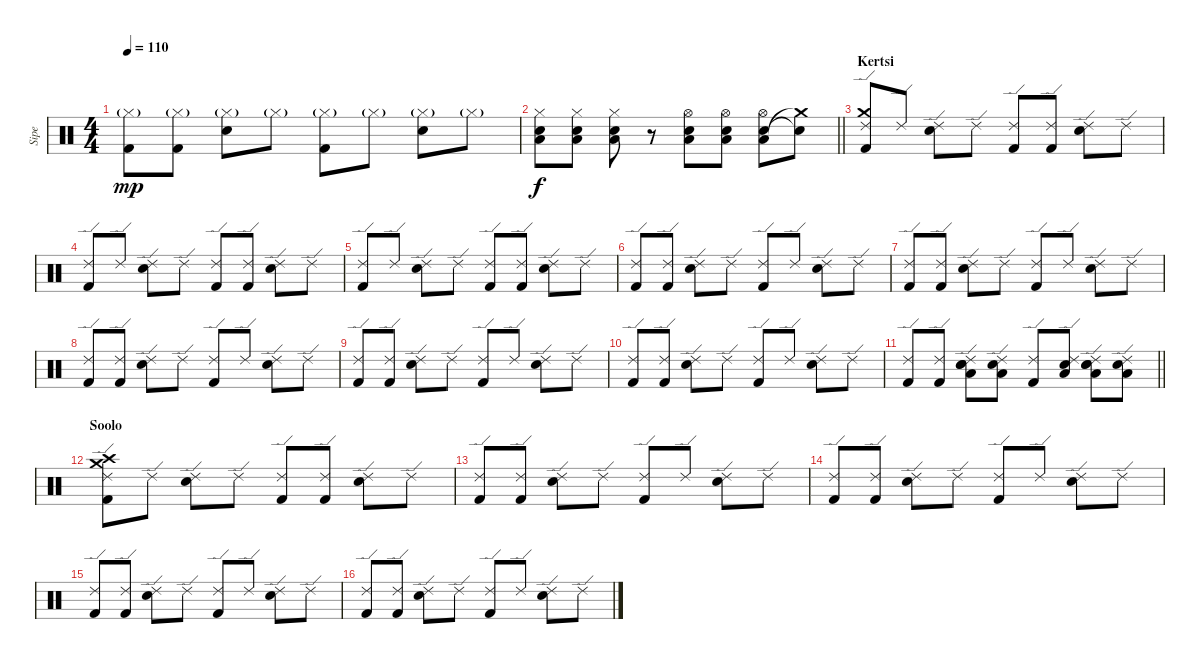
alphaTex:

\track ("Sipe" "Sipe") {instrument percussion}
\staff {score}
\articulation defaults
\ts (4 4)
\tempo 110
\clef neutral
\ks c
("Hi-Hat (closed)"{g} "Kick (hit) 2").8{dy mp} ("Hi-Hat (closed)"{g} "Kick (hit) 2").8 ("Hi-Hat (closed)"{g} "Snare (hit) 2").8 "Hi-Hat (closed)"{g}.8 ("Hi-Hat (closed)"{g} "Kick (hit) 2").8 "Hi-Hat (closed)"{g}.8 ("Hi-Hat (closed)"{g} "Snare (hit) 2").8 "Hi-Hat (closed)"{g}.8 |
\barLineRight lightlight
("Low Tom (hit)" "Snare (hit) 2" "Hi-Hat (closed)").8{dy f} ("Low Tom (hit)" "Snare (hit) 2" "Hi-Hat (closed)").8 ("Low Tom (hit)" "Snare (hit) 2" "Hi-Hat (closed)").8 r.8 ("Snare (hit) 2" "Low Tom (hit)" "Hi-Hat (open)").8 ("Snare (hit) 2" "Low Tom (hit)" "Hi-Hat (open)").8 ("Snare (hit) 2" "Low Tom (hit)" "Hi-Hat (open)").8 ("Snare (hit)"{t} "Crash medium (hit)"{t}).8 |
\section ("" "Kertsi")
("Ride (edge) 2" "Kick (hit) 2" "Crash medium (hit)").8 "Ride (edge) 2".8 ("Ride (edge) 2" "Snare (hit) 2").8 "Ride (edge) 2".8 ("Ride (edge) 2" "Kick (hit) 2").8 ("Ride (edge) 2" "Kick (hit) 2").8 ("Ride (edge) 2" "Snare (hit) 2").8 "Ride (edge) 2".8 |
("Ride (edge) 2" "Kick (hit) 2").8 "Ride (edge) 2".8 ("Ride (edge) 2" "Snare (hit) 2").8 "Ride (edge) 2".8 ("Ride (edge) 2" "Kick (hit) 2").8 ("Ride (edge) 2" "Kick (hit) 2").8 ("Ride (edge) 2" "Snare (hit) 2").8 "Ride (edge) 2".8 |
("Ride (edge) 2" "Kick (hit) 2").8 "Ride (edge) 2".8 ("Ride (edge) 2" "Snare (hit) 2").8 "Ride (edge) 2".8 ("Ride (edge) 2" "Kick (hit) 2").8 ("Ride (edge) 2" "Kick (hit) 2").8 ("Ride (edge) 2" "Snare (hit) 2").8 "Ride (edge) 2".8 |
("Ride (edge) 2" "Kick (hit) 2").8 ("Ride (edge) 2" "Kick (hit) 2").8 ("Ride (edge) 2" "Snare (hit) 2").8 "Ride (edge) 2".8 ("Ride (edge) 2" "Kick (hit) 2").8 "Ride (edge) 2".8 ("Ride (edge) 2" "Snare (hit) 2").8 "Ride (edge) 2".8 |
("Ride (edge) 2" "Kick (hit) 2").8 ("Ride (edge) 2" "Kick (hit) 2").8 ("Ride (edge) 2" "Snare (hit) 2").8 "Ride (edge) 2".8 ("Ride (edge) 2" "Kick (hit) 2").8 "Ride (edge) 2".8 ("Ride (edge) 2" "Snare (hit) 2").8 "Ride (edge) 2".8 |
("Ride (edge) 2" "Kick (hit) 2").8 ("Ride (edge) 2" "Kick (hit) 2").8 ("Ride (edge) 2" "Snare (hit) 2").8 "Ride (edge) 2".8 ("Ride (edge) 2" "Kick (hit) 2").8 "Ride (edge) 2".8 ("Ride (edge) 2" "Snare (hit) 2").8 "Ride (edge) 2".8 |
("Ride (edge) 2" "Kick (hit) 2").8 ("Ride (edge) 2" "Kick (hit) 2").8 ("Ride (edge) 2" "Snare (hit) 2").8 "Ride (edge) 2".8 ("Ride (edge) 2" "Kick (hit) 2").8 "Ride (edge) 2".8 ("Ride (edge) 2" "Snare (hit) 2").8 "Ride (edge) 2".8 |
("Ride (edge) 2" "Kick (hit) 2").8 ("Ride (edge) 2" "Kick (hit) 2").8 ("Ride (edge) 2" "Snare (hit) 2").8 "Ride (edge) 2".8 ("Ride (edge) 2" "Kick (hit) 2").8 "Ride (edge) 2".8 ("Ride (edge) 2" "Snare (hit) 2").8 "Ride (edge) 2".8 |
\barLineRight lightlight
("Ride (edge) 2" "Kick (hit) 2").8 ("Ride (edge) 2" "Kick (hit) 2").8 ("Ride (edge) 2" "Snare (hit) 2" "Snare (hit) 2" "Low Tom (hit)").8 ("Ride (edge) 2" "Snare (hit) 2" "Low Tom (hit)").8 ("Ride (edge) 2" "Kick (hit) 2").8 ("Ride (edge) 2" "Snare (hit) 2" "Low Tom (hit)").8 ("Ride (edge) 2" "Snare (hit) 2" "Snare (hit) 2" "Low Tom (hit)").8 ("Ride (edge) 2" "Snare (hit) 2" "Low Tom (hit)").8 |
\section ("" "Soolo")
("Ride (edge) 2" "Kick (hit) 2" "Crash medium (hit)" "Crash high (hit)").8 "Ride (edge) 2".8 ("Ride (edge) 2" "Snare (hit) 2").8 "Ride (edge) 2".8 ("Ride (edge) 2" "Kick (hit) 2").8 ("Ride (edge) 2" "Kick (hit) 2").8 ("Ride (edge) 2" "Snare (hit) 2").8 "Ride (edge) 2".8 |
("Ride (edge) 2" "Kick (hit) 2").8 ("Ride (edge) 2" "Kick (hit) 2").8 ("Ride (edge) 2" "Snare (hit) 2").8 "Ride (edge) 2".8 ("Ride (edge) 2" "Kick (hit) 2").8 "Ride (edge) 2".8 ("Ride (edge) 2" "Snare (hit) 2").8 "Ride (edge) 2".8 |
("Ride (edge) 2" "Kick (hit) 2").8 ("Ride (edge) 2" "Kick (hit) 2").8 ("Ride (edge) 2" "Snare (hit) 2").8 "Ride (edge) 2".8 ("Ride (edge) 2" "Kick (hit) 2").8 "Ride (edge) 2".8 ("Ride (edge) 2" "Snare (hit) 2").8 "Ride (edge) 2".8 |
("Ride (edge) 2" "Kick (hit) 2").8 ("Ride (edge) 2" "Kick (hit) 2").8 ("Ride (edge) 2" "Snare (hit) 2").8 "Ride (edge) 2".8 ("Ride (edge) 2" "Kick (hit) 2").8 "Ride (edge) 2".8 ("Ride (edge) 2" "Snare (hit) 2").8 "Ride (edge) 2".8 |
("Ride (edge) 2" "Kick (hit) 2").8 ("Ride (edge) 2" "Kick (hit) 2").8 ("Ride (edge) 2" "Snare (hit) 2").8 "Ride (edge) 2".8 ("Ride (edge) 2" "Kick (hit) 2").8 "Ride (edge) 2".8 ("Ride (edge) 2" "Snare (hit) 2").8 "Ride (edge) 2".8
